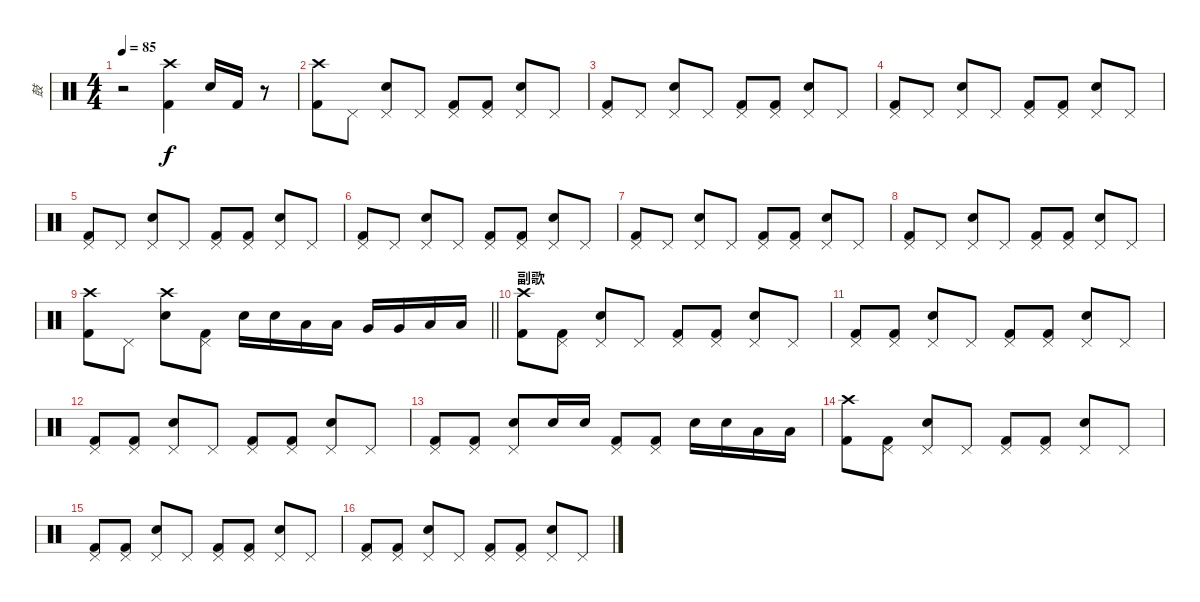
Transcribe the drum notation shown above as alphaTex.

\track ("鼓" "鼓") {instrument percussion}
\staff {score}
\articulation defaults
\ts (4 4)
\tempo 85
\clef neutral
\ks c
r.2{dy f} ("Crash high (hit)" "Kick (hit) 2").4 "Electric Snare (hit)".16 "Kick (hit) 2".16 r.8 |
("Crash high (hit)" "Kick (hit) 2").8 "Pedal Hi-Hat (hit)".8 ("Pedal Hi-Hat (hit)" "Electric Snare (hit)").8 "Pedal Hi-Hat (hit)".8 ("Pedal Hi-Hat (hit)" "Kick (hit) 2").8 ("Pedal Hi-Hat (hit)" "Kick (hit) 2").8 ("Pedal Hi-Hat (hit)" "Electric Snare (hit)").8 "Pedal Hi-Hat (hit)".8 |
("Pedal Hi-Hat (hit)" "Kick (hit) 2").8 "Pedal Hi-Hat (hit)".8 ("Pedal Hi-Hat (hit)" "Electric Snare (hit)").8 "Pedal Hi-Hat (hit)".8 ("Pedal Hi-Hat (hit)" "Kick (hit) 2").8 ("Pedal Hi-Hat (hit)" "Kick (hit) 2").8 ("Pedal Hi-Hat (hit)" "Electric Snare (hit)").8 "Pedal Hi-Hat (hit)".8 |
("Pedal Hi-Hat (hit)" "Kick (hit) 2").8 "Pedal Hi-Hat (hit)".8 ("Pedal Hi-Hat (hit)" "Electric Snare (hit)").8 "Pedal Hi-Hat (hit)".8 ("Pedal Hi-Hat (hit)" "Kick (hit) 2").8 ("Pedal Hi-Hat (hit)" "Kick (hit) 2").8 ("Pedal Hi-Hat (hit)" "Electric Snare (hit)").8 "Pedal Hi-Hat (hit)".8 |
("Pedal Hi-Hat (hit)" "Kick (hit) 2").8 "Pedal Hi-Hat (hit)".8 ("Pedal Hi-Hat (hit)" "Electric Snare (hit)").8 "Pedal Hi-Hat (hit)".8 ("Pedal Hi-Hat (hit)" "Kick (hit) 2").8 ("Pedal Hi-Hat (hit)" "Kick (hit) 2").8 ("Pedal Hi-Hat (hit)" "Electric Snare (hit)").8 "Pedal Hi-Hat (hit)".8 |
("Pedal Hi-Hat (hit)" "Kick (hit) 2").8 "Pedal Hi-Hat (hit)".8 ("Pedal Hi-Hat (hit)" "Electric Snare (hit)").8 "Pedal Hi-Hat (hit)".8 ("Pedal Hi-Hat (hit)" "Kick (hit) 2").8 ("Pedal Hi-Hat (hit)" "Kick (hit) 2").8 ("Pedal Hi-Hat (hit)" "Electric Snare (hit)").8 "Pedal Hi-Hat (hit)".8 |
("Pedal Hi-Hat (hit)" "Kick (hit) 2").8 "Pedal Hi-Hat (hit)".8 ("Pedal Hi-Hat (hit)" "Electric Snare (hit)").8 "Pedal Hi-Hat (hit)".8 ("Pedal Hi-Hat (hit)" "Kick (hit) 2").8 ("Pedal Hi-Hat (hit)" "Kick (hit) 2").8 ("Pedal Hi-Hat (hit)" "Electric Snare (hit)").8 "Pedal Hi-Hat (hit)".8 |
("Pedal Hi-Hat (hit)" "Kick (hit) 2").8 "Pedal Hi-Hat (hit)".8 ("Pedal Hi-Hat (hit)" "Electric Snare (hit)").8 "Pedal Hi-Hat (hit)".8 ("Pedal Hi-Hat (hit)" "Kick (hit) 2").8 ("Pedal Hi-Hat (hit)" "Kick (hit) 2").8 ("Pedal Hi-Hat (hit)" "Electric Snare (hit)").8 "Pedal Hi-Hat (hit)".8 |
\barLineRight lightlight
("Crash high (hit)" "Kick (hit) 2").8 "Pedal Hi-Hat (hit)".8 ("Crash high (hit)" "Electric Snare (hit)").8 ("Pedal Hi-Hat (hit)" "Kick (hit) 2").8 "Electric Snare (hit)".16 "Electric Snare (hit)".16 "Low Tom (hit)".16 "Low Tom (hit)".16 "Very Low Tom (hit)".16 "Very Low Tom (hit)".16 "Low Floor Tom (hit)".16 "Low Floor Tom (hit)".16 |
\section ("" "副歌")
("Crash high (hit)" "Kick (hit) 2").8 ("Pedal Hi-Hat (hit)" "Kick (hit) 2").8 ("Pedal Hi-Hat (hit)" "Electric Snare (hit)").8 "Pedal Hi-Hat (hit)".8 ("Pedal Hi-Hat (hit)" "Kick (hit) 2").8 ("Pedal Hi-Hat (hit)" "Kick (hit) 2").8 ("Pedal Hi-Hat (hit)" "Electric Snare (hit)").8 "Pedal Hi-Hat (hit)".8 |
("Pedal Hi-Hat (hit)" "Kick (hit) 2").8 ("Pedal Hi-Hat (hit)" "Kick (hit) 2").8 ("Pedal Hi-Hat (hit)" "Electric Snare (hit)").8 "Pedal Hi-Hat (hit)".8 ("Pedal Hi-Hat (hit)" "Kick (hit) 2").8 ("Pedal Hi-Hat (hit)" "Kick (hit) 2").8 ("Pedal Hi-Hat (hit)" "Electric Snare (hit)").8 "Pedal Hi-Hat (hit)".8 |
("Pedal Hi-Hat (hit)" "Kick (hit) 2").8 ("Pedal Hi-Hat (hit)" "Kick (hit) 2").8 ("Pedal Hi-Hat (hit)" "Electric Snare (hit)").8 "Pedal Hi-Hat (hit)".8 ("Pedal Hi-Hat (hit)" "Kick (hit) 2").8 ("Pedal Hi-Hat (hit)" "Kick (hit) 2").8 ("Pedal Hi-Hat (hit)" "Electric Snare (hit)").8 "Pedal Hi-Hat (hit)".8 |
("Pedal Hi-Hat (hit)" "Kick (hit) 2").8 ("Pedal Hi-Hat (hit)" "Kick (hit) 2").8 ("Pedal Hi-Hat (hit)" "Electric Snare (hit)").8 "Electric Snare (hit)".16 "Electric Snare (hit)".16 ("Pedal Hi-Hat (hit)" "Kick (hit) 2").8 ("Pedal Hi-Hat (hit)" "Kick (hit) 2").8 "Electric Snare (hit)".16 "Electric Snare (hit)".16 "Low Floor Tom (hit)".16 "Low Floor Tom (hit)".16 |
("Crash high (hit)" "Kick (hit) 2").8 ("Pedal Hi-Hat (hit)" "Kick (hit) 2").8 ("Pedal Hi-Hat (hit)" "Electric Snare (hit)").8 "Pedal Hi-Hat (hit)".8 ("Pedal Hi-Hat (hit)" "Kick (hit) 2").8 ("Pedal Hi-Hat (hit)" "Kick (hit) 2").8 ("Pedal Hi-Hat (hit)" "Electric Snare (hit)").8 "Pedal Hi-Hat (hit)".8 |
("Pedal Hi-Hat (hit)" "Kick (hit) 2").8 ("Pedal Hi-Hat (hit)" "Kick (hit) 2").8 ("Pedal Hi-Hat (hit)" "Electric Snare (hit)").8 "Pedal Hi-Hat (hit)".8 ("Pedal Hi-Hat (hit)" "Kick (hit) 2").8 ("Pedal Hi-Hat (hit)" "Kick (hit) 2").8 ("Pedal Hi-Hat (hit)" "Electric Snare (hit)").8 "Pedal Hi-Hat (hit)".8 |
("Pedal Hi-Hat (hit)" "Kick (hit) 2").8 ("Pedal Hi-Hat (hit)" "Kick (hit) 2").8 ("Pedal Hi-Hat (hit)" "Electric Snare (hit)").8 "Pedal Hi-Hat (hit)".8 ("Pedal Hi-Hat (hit)" "Kick (hit) 2").8 ("Pedal Hi-Hat (hit)" "Kick (hit) 2").8 ("Pedal Hi-Hat (hit)" "Electric Snare (hit)").8 "Pedal Hi-Hat (hit)".8
